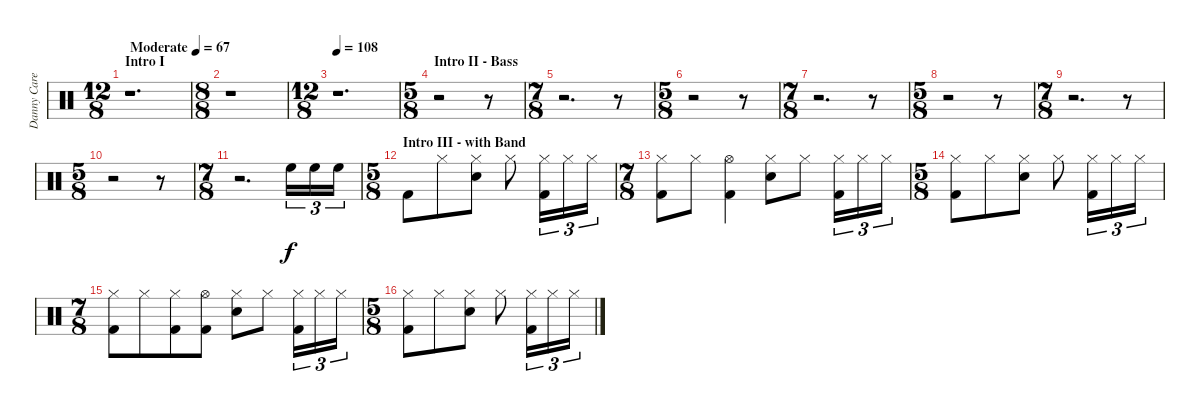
\track ("Danny Carey" "Danny Care") {instrument percussion}
\staff {score}
\articulation defaults
\ts (12 8)
\section ("" "Intro I")
\tempo (67 "Moderate")
\clef neutral
\ks c
r.1{d dy f} |
\ts (8 8)
r.1 |
\ts (12 8)
\tempo 108
r.1{d} |
\ts (5 8)
\section ("" "Intro II - Bass")
r.2 r.8 |
\ts (7 8)
r.2{d} r.8 |
\ts (5 8)
r.2 r.8 |
\ts (7 8)
r.2{d} r.8 |
\ts (5 8)
r.2 r.8 |
\ts (7 8)
r.2{d} r.8 |
\ts (5 8)
r.2 r.8 |
\ts (7 8)
r.2{d} "High Floor Tom (hit)".16{tu (3 2)} "High Floor Tom (hit)".16{tu (3 2)} "High Floor Tom (hit)".16{tu (3 2)} |
\ts (5 8)
\section ("" "Intro III - with Band")
"Kick (hit) 2".8 "Hi-Hat (closed)".8 ("Hi-Hat (closed)" "Electric Snare (hit)").8 "Hi-Hat (closed)".8 ("Hi-Hat (closed)" "Kick (hit) 2").16{tu (3 2)} "Hi-Hat (closed)".16{tu (3 2)} "Hi-Hat (closed)".16{tu (3 2)} |
\ts (7 8)
("Hi-Hat (closed)" "Kick (hit) 2").8 "Hi-Hat (closed)".8 ("Hi-Hat (open)" "Kick (hit) 2").4 ("Hi-Hat (closed)" "Electric Snare (hit)").8 "Hi-Hat (closed)".8 ("Hi-Hat (closed)" "Kick (hit) 2").16{tu (3 2)} "Hi-Hat (closed)".16{tu (3 2)} "Hi-Hat (closed)".16{tu (3 2)} |
\ts (5 8)
("Hi-Hat (closed)" "Kick (hit) 2").8 "Hi-Hat (closed)".8 ("Hi-Hat (closed)" "Electric Snare (hit)").8 "Hi-Hat (closed)".8 ("Hi-Hat (closed)" "Kick (hit) 2").16{tu (3 2)} "Hi-Hat (closed)".16{tu (3 2)} "Hi-Hat (closed)".16{tu (3 2)} |
\ts (7 8)
("Hi-Hat (closed)" "Kick (hit) 2").8 "Hi-Hat (closed)".8 ("Hi-Hat (closed)" "Kick (hit) 2").8 ("Hi-Hat (open)" "Kick (hit) 2").8 ("Hi-Hat (closed)" "Electric Snare (hit)").8 "Hi-Hat (closed)".8 ("Hi-Hat (closed)" "Kick (hit) 2").16{tu (3 2)} "Hi-Hat (closed)".16{tu (3 2)} "Hi-Hat (closed)".16{tu (3 2)} |
\ts (5 8)
("Hi-Hat (closed)" "Kick (hit) 2").8 "Hi-Hat (closed)".8 ("Hi-Hat (closed)" "Electric Snare (hit)").8 "Hi-Hat (closed)".8 ("Hi-Hat (closed)" "Kick (hit) 2").16{tu (3 2)} "Hi-Hat (closed)".16{tu (3 2)} "Hi-Hat (closed)".16{tu (3 2)}
